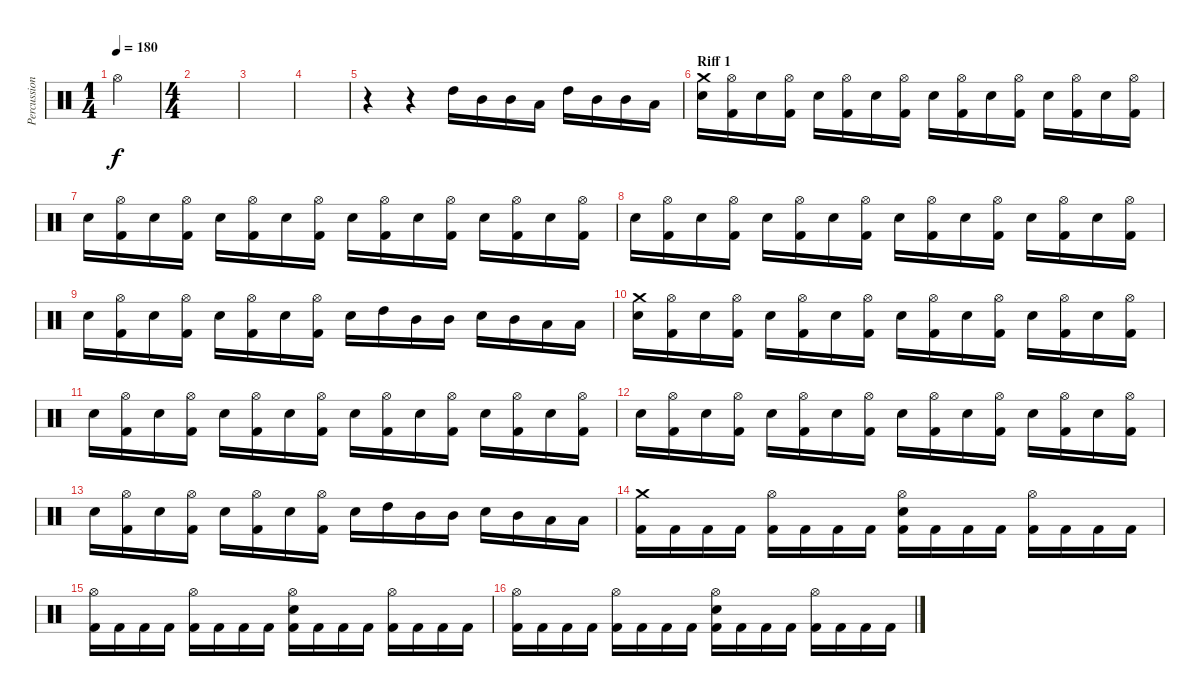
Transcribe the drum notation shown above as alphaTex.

\track ("Percussions" "Percussion") {instrument percussion}
\staff {score}
\articulation defaults
\ts (1 4)
\tempo 180
\clef neutral
\ks c "Hi-Hat (open)".4{dy f}
|
\ts (4 4)
|
|
|
r.4 r.4 "High Tom (hit)".16 "Mid Tom (hit)".16 "Mid Tom (hit)".16 "Low Tom (hit)".16 "High Tom (hit)".16 "Mid Tom (hit)".16 "Mid Tom (hit)".16 "Low Tom (hit)".16 |
\section ("" "Riff 1")
("Crash medium (hit)" "Electric Snare (hit)").16 ("Hi-Hat (open)" "Kick (hit) 2").16 "Electric Snare (hit)".16 ("Hi-Hat (open)" "Kick (hit) 2").16 "Electric Snare (hit)".16 ("Hi-Hat (open)" "Kick (hit) 2").16 "Electric Snare (hit)".16 ("Hi-Hat (open)" "Kick (hit) 2").16 "Electric Snare (hit)".16 ("Hi-Hat (open)" "Kick (hit) 2").16 "Electric Snare (hit)".16 ("Hi-Hat (open)" "Kick (hit) 2").16 "Electric Snare (hit)".16 ("Hi-Hat (open)" "Kick (hit) 2").16 "Electric Snare (hit)".16 ("Hi-Hat (open)" "Kick (hit) 2").16 |
"Electric Snare (hit)".16 ("Hi-Hat (open)" "Kick (hit) 2").16 "Electric Snare (hit)".16 ("Hi-Hat (open)" "Kick (hit) 2").16 "Electric Snare (hit)".16 ("Hi-Hat (open)" "Kick (hit) 2").16 "Electric Snare (hit)".16 ("Hi-Hat (open)" "Kick (hit) 2").16 "Electric Snare (hit)".16 ("Hi-Hat (open)" "Kick (hit) 2").16 "Electric Snare (hit)".16 ("Hi-Hat (open)" "Kick (hit) 2").16 "Electric Snare (hit)".16 ("Hi-Hat (open)" "Kick (hit) 2").16 "Electric Snare (hit)".16 ("Hi-Hat (open)" "Kick (hit) 2").16 |
"Electric Snare (hit)".16 ("Hi-Hat (open)" "Kick (hit) 2").16 "Electric Snare (hit)".16 ("Hi-Hat (open)" "Kick (hit) 2").16 "Electric Snare (hit)".16 ("Hi-Hat (open)" "Kick (hit) 2").16 "Electric Snare (hit)".16 ("Hi-Hat (open)" "Kick (hit) 2").16 "Electric Snare (hit)".16 ("Hi-Hat (open)" "Kick (hit) 2").16 "Electric Snare (hit)".16 ("Hi-Hat (open)" "Kick (hit) 2").16 "Electric Snare (hit)".16 ("Hi-Hat (open)" "Kick (hit) 2").16 "Electric Snare (hit)".16 ("Hi-Hat (open)" "Kick (hit) 2").16 |
"Electric Snare (hit)".16 ("Hi-Hat (open)" "Kick (hit) 2").16 "Electric Snare (hit)".16 ("Hi-Hat (open)" "Kick (hit) 2").16 "Electric Snare (hit)".16 ("Hi-Hat (open)" "Kick (hit) 2").16 "Electric Snare (hit)".16 ("Hi-Hat (open)" "Kick (hit) 2").16 "Electric Snare (hit)".16 "High Tom (hit)".16 "Mid Tom (hit)".16 "Mid Tom (hit)".16 "Electric Snare (hit)".16 "Mid Tom (hit)".16 "Low Tom (hit)".16 "Low Tom (hit)".16 |
("Crash medium (hit)" "Electric Snare (hit)").16 ("Hi-Hat (open)" "Kick (hit) 2").16 "Electric Snare (hit)".16 ("Hi-Hat (open)" "Kick (hit) 2").16 "Electric Snare (hit)".16 ("Hi-Hat (open)" "Kick (hit) 2").16 "Electric Snare (hit)".16 ("Hi-Hat (open)" "Kick (hit) 2").16 "Electric Snare (hit)".16 ("Hi-Hat (open)" "Kick (hit) 2").16 "Electric Snare (hit)".16 ("Hi-Hat (open)" "Kick (hit) 2").16 "Electric Snare (hit)".16 ("Hi-Hat (open)" "Kick (hit) 2").16 "Electric Snare (hit)".16 ("Hi-Hat (open)" "Kick (hit) 2").16 |
"Electric Snare (hit)".16 ("Hi-Hat (open)" "Kick (hit) 2").16 "Electric Snare (hit)".16 ("Hi-Hat (open)" "Kick (hit) 2").16 "Electric Snare (hit)".16 ("Hi-Hat (open)" "Kick (hit) 2").16 "Electric Snare (hit)".16 ("Hi-Hat (open)" "Kick (hit) 2").16 "Electric Snare (hit)".16 ("Hi-Hat (open)" "Kick (hit) 2").16 "Electric Snare (hit)".16 ("Hi-Hat (open)" "Kick (hit) 2").16 "Electric Snare (hit)".16 ("Hi-Hat (open)" "Kick (hit) 2").16 "Electric Snare (hit)".16 ("Hi-Hat (open)" "Kick (hit) 2").16 |
"Electric Snare (hit)".16 ("Hi-Hat (open)" "Kick (hit) 2").16 "Electric Snare (hit)".16 ("Hi-Hat (open)" "Kick (hit) 2").16 "Electric Snare (hit)".16 ("Hi-Hat (open)" "Kick (hit) 2").16 "Electric Snare (hit)".16 ("Hi-Hat (open)" "Kick (hit) 2").16 "Electric Snare (hit)".16 ("Hi-Hat (open)" "Kick (hit) 2").16 "Electric Snare (hit)".16 ("Hi-Hat (open)" "Kick (hit) 2").16 "Electric Snare (hit)".16 ("Hi-Hat (open)" "Kick (hit) 2").16 "Electric Snare (hit)".16 ("Hi-Hat (open)" "Kick (hit) 2").16 |
"Electric Snare (hit)".16 ("Hi-Hat (open)" "Kick (hit) 2").16 "Electric Snare (hit)".16 ("Hi-Hat (open)" "Kick (hit) 2").16 "Electric Snare (hit)".16 ("Hi-Hat (open)" "Kick (hit) 2").16 "Electric Snare (hit)".16 ("Hi-Hat (open)" "Kick (hit) 2").16 "Electric Snare (hit)".16 "High Tom (hit)".16 "Mid Tom (hit)".16 "Mid Tom (hit)".16 "Electric Snare (hit)".16 "Mid Tom (hit)".16 "Low Tom (hit)".16 "Low Tom (hit)".16 |
("Crash medium (hit)" "Kick (hit) 2").16 "Kick (hit) 2".16 "Kick (hit) 2".16 "Kick (hit) 2".16 ("Hi-Hat (open)" "Kick (hit) 2").16 "Kick (hit) 2".16 "Kick (hit) 2".16 "Kick (hit) 2".16 ("Hi-Hat (open)" "Electric Snare (hit)" "Kick (hit) 2").16 "Kick (hit) 2".16 "Kick (hit) 2".16 "Kick (hit) 2".16 ("Hi-Hat (open)" "Kick (hit) 2").16 "Kick (hit) 2".16 "Kick (hit) 2".16 "Kick (hit) 2".16 |
("Hi-Hat (open)" "Kick (hit) 2").16 "Kick (hit) 2".16 "Kick (hit) 2".16 "Kick (hit) 2".16 ("Hi-Hat (open)" "Kick (hit) 2").16 "Kick (hit) 2".16 "Kick (hit) 2".16 "Kick (hit) 2".16 ("Hi-Hat (open)" "Electric Snare (hit)" "Kick (hit) 2").16 "Kick (hit) 2".16 "Kick (hit) 2".16 "Kick (hit) 2".16 ("Hi-Hat (open)" "Kick (hit) 2").16 "Kick (hit) 2".16 "Kick (hit) 2".16 "Kick (hit) 2".16 |
("Hi-Hat (open)" "Kick (hit) 2").16 "Kick (hit) 2".16 "Kick (hit) 2".16 "Kick (hit) 2".16 ("Hi-Hat (open)" "Kick (hit) 2").16 "Kick (hit) 2".16 "Kick (hit) 2".16 "Kick (hit) 2".16 ("Hi-Hat (open)" "Electric Snare (hit)" "Kick (hit) 2").16 "Kick (hit) 2".16 "Kick (hit) 2".16 "Kick (hit) 2".16 ("Hi-Hat (open)" "Kick (hit) 2").16 "Kick (hit) 2".16 "Kick (hit) 2".16 "Kick (hit) 2".16
